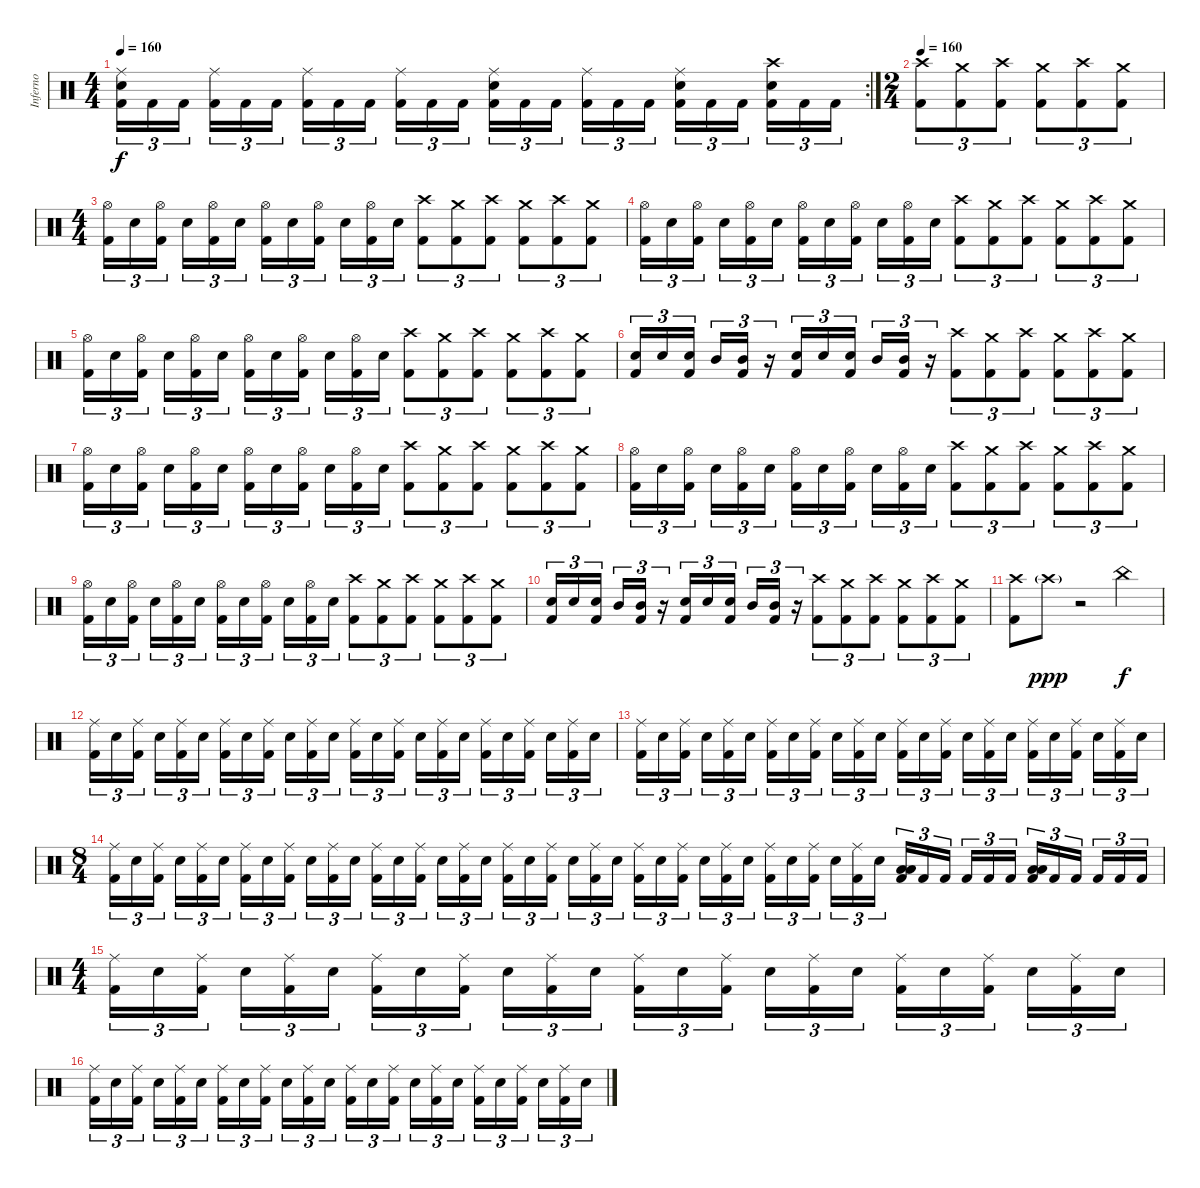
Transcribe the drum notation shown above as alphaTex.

\track ("Inferno" "Inferno") {instrument percussion}
\staff {score}
\articulation defaults
\rc 2
\ts (4 4)
\tempo 160
\clef neutral
\ks c
("Ride (middle)" "Electric Snare (hit)" "Kick (hit) 2").16{tu (3 2) dy f} "Kick (hit) 2".16{tu (3 2)} "Kick (hit) 2".16{tu (3 2)} ("Ride (middle)" "Kick (hit) 2").16{tu (3 2)} "Kick (hit) 2".16{tu (3 2)} "Kick (hit) 2".16{tu (3 2)} ("Ride (middle)" "Kick (hit) 2").16{tu (3 2)} "Kick (hit) 2".16{tu (3 2)} "Kick (hit) 2".16{tu (3 2)} ("Ride (middle)" "Kick (hit) 2").16{tu (3 2)} "Kick (hit) 2".16{tu (3 2)} "Kick (hit) 2".16{tu (3 2)} ("Ride (middle)" "Electric Snare (hit)" "Kick (hit) 2").16{tu (3 2)} "Kick (hit) 2".16{tu (3 2)} "Kick (hit) 2".16{tu (3 2)} ("Ride (middle)" "Kick (hit) 2").16{tu (3 2)} "Kick (hit) 2".16{tu (3 2)} "Kick (hit) 2".16{tu (3 2)} ("Ride (middle)" "Electric Snare (hit)" "Kick (hit) 2").16{tu (3 2)} "Kick (hit) 2".16{tu (3 2)} "Kick (hit) 2".16{tu (3 2)} ("Crash high (hit)" "Electric Snare (hit)" "Kick (hit) 2").16{tu (3 2)} "Kick (hit) 2".16{tu (3 2)} "Kick (hit) 2".16{tu (3 2)} |
\ts (2 4)
\tempo 160
("Crash high (hit)" "Kick (hit) 2").8{tu (3 2)} ("Crash medium (hit)" "Kick (hit) 2").8{tu (3 2)} ("Crash high (hit)" "Kick (hit) 2").8{tu (3 2)} ("Crash medium (hit)" "Kick (hit) 2").8{tu (3 2)} ("Crash high (hit)" "Kick (hit) 2").8{tu (3 2)} ("Crash medium (hit)" "Kick (hit) 2").8{tu (3 2)} |
\ts (4 4)
("Hi-Hat (open)" "Kick (hit) 2").16{tu (3 2)} "Electric Snare (hit)".16{tu (3 2)} ("Hi-Hat (open)" "Kick (hit) 2").16{tu (3 2)} "Electric Snare (hit)".16{tu (3 2)} ("Hi-Hat (open)" "Kick (hit) 2").16{tu (3 2)} "Electric Snare (hit)".16{tu (3 2)} ("Hi-Hat (open)" "Kick (hit) 2").16{tu (3 2)} "Electric Snare (hit)".16{tu (3 2)} ("Hi-Hat (open)" "Kick (hit) 2").16{tu (3 2)} "Electric Snare (hit)".16{tu (3 2)} ("Hi-Hat (open)" "Kick (hit) 2").16{tu (3 2)} "Electric Snare (hit)".16{tu (3 2)} ("Crash high (hit)" "Kick (hit) 2").8{tu (3 2)} ("Crash medium (hit)" "Kick (hit) 2").8{tu (3 2)} ("Crash high (hit)" "Kick (hit) 2").8{tu (3 2)} ("Crash medium (hit)" "Kick (hit) 2").8{tu (3 2)} ("Crash high (hit)" "Kick (hit) 2").8{tu (3 2)} ("Crash medium (hit)" "Kick (hit) 2").8{tu (3 2)} |
("Hi-Hat (open)" "Kick (hit) 2").16{tu (3 2)} "Electric Snare (hit)".16{tu (3 2)} ("Hi-Hat (open)" "Kick (hit) 2").16{tu (3 2)} "Electric Snare (hit)".16{tu (3 2)} ("Hi-Hat (open)" "Kick (hit) 2").16{tu (3 2)} "Electric Snare (hit)".16{tu (3 2)} ("Hi-Hat (open)" "Kick (hit) 2").16{tu (3 2)} "Electric Snare (hit)".16{tu (3 2)} ("Hi-Hat (open)" "Kick (hit) 2").16{tu (3 2)} "Electric Snare (hit)".16{tu (3 2)} ("Hi-Hat (open)" "Kick (hit) 2").16{tu (3 2)} "Electric Snare (hit)".16{tu (3 2)} ("Crash high (hit)" "Kick (hit) 2").8{tu (3 2)} ("Crash medium (hit)" "Kick (hit) 2").8{tu (3 2)} ("Crash high (hit)" "Kick (hit) 2").8{tu (3 2)} ("Crash medium (hit)" "Kick (hit) 2").8{tu (3 2)} ("Crash high (hit)" "Kick (hit) 2").8{tu (3 2)} ("Crash medium (hit)" "Kick (hit) 2").8{tu (3 2)} |
("Hi-Hat (open)" "Kick (hit) 2").16{tu (3 2)} "Electric Snare (hit)".16{tu (3 2)} ("Hi-Hat (open)" "Kick (hit) 2").16{tu (3 2)} "Electric Snare (hit)".16{tu (3 2)} ("Hi-Hat (open)" "Kick (hit) 2").16{tu (3 2)} "Electric Snare (hit)".16{tu (3 2)} ("Hi-Hat (open)" "Kick (hit) 2").16{tu (3 2)} "Electric Snare (hit)".16{tu (3 2)} ("Hi-Hat (open)" "Kick (hit) 2").16{tu (3 2)} "Electric Snare (hit)".16{tu (3 2)} ("Hi-Hat (open)" "Kick (hit) 2").16{tu (3 2)} "Electric Snare (hit)".16{tu (3 2)} ("Crash high (hit)" "Kick (hit) 2").8{tu (3 2)} ("Crash medium (hit)" "Kick (hit) 2").8{tu (3 2)} ("Crash high (hit)" "Kick (hit) 2").8{tu (3 2)} ("Crash medium (hit)" "Kick (hit) 2").8{tu (3 2)} ("Crash high (hit)" "Kick (hit) 2").8{tu (3 2)} ("Crash medium (hit)" "Kick (hit) 2").8{tu (3 2)} |
("Electric Snare (hit)" "Kick (hit) 2").16{tu (3 2)} "Electric Snare (hit)".16{tu (3 2)} ("Electric Snare (hit)" "Kick (hit) 2").16{tu (3 2)} "Mid Tom (hit)".16{tu (3 2)} ("Mid Tom (hit)" "Kick (hit) 2").16{tu (3 2)} r.16{tu (3 2)} ("Electric Snare (hit)" "Kick (hit) 2").16{tu (3 2)} "Electric Snare (hit)".16{tu (3 2)} ("Electric Snare (hit)" "Kick (hit) 2").16{tu (3 2)} "Mid Tom (hit)".16{tu (3 2)} ("Mid Tom (hit)" "Kick (hit) 2").16{tu (3 2)} r.16{tu (3 2)} ("Crash high (hit)" "Kick (hit) 2").8{tu (3 2)} ("Crash medium (hit)" "Kick (hit) 2").8{tu (3 2)} ("Crash high (hit)" "Kick (hit) 2").8{tu (3 2)} ("Crash medium (hit)" "Kick (hit) 2").8{tu (3 2)} ("Crash high (hit)" "Kick (hit) 2").8{tu (3 2)} ("Crash medium (hit)" "Kick (hit) 2").8{tu (3 2)} |
("Hi-Hat (open)" "Kick (hit) 2").16{tu (3 2)} "Electric Snare (hit)".16{tu (3 2)} ("Hi-Hat (open)" "Kick (hit) 2").16{tu (3 2)} "Electric Snare (hit)".16{tu (3 2)} ("Hi-Hat (open)" "Kick (hit) 2").16{tu (3 2)} "Electric Snare (hit)".16{tu (3 2)} ("Hi-Hat (open)" "Kick (hit) 2").16{tu (3 2)} "Electric Snare (hit)".16{tu (3 2)} ("Hi-Hat (open)" "Kick (hit) 2").16{tu (3 2)} "Electric Snare (hit)".16{tu (3 2)} ("Hi-Hat (open)" "Kick (hit) 2").16{tu (3 2)} "Electric Snare (hit)".16{tu (3 2)} ("Crash high (hit)" "Kick (hit) 2").8{tu (3 2)} ("Crash medium (hit)" "Kick (hit) 2").8{tu (3 2)} ("Crash high (hit)" "Kick (hit) 2").8{tu (3 2)} ("Crash medium (hit)" "Kick (hit) 2").8{tu (3 2)} ("Crash high (hit)" "Kick (hit) 2").8{tu (3 2)} ("Crash medium (hit)" "Kick (hit) 2").8{tu (3 2)} |
("Hi-Hat (open)" "Kick (hit) 2").16{tu (3 2)} "Electric Snare (hit)".16{tu (3 2)} ("Hi-Hat (open)" "Kick (hit) 2").16{tu (3 2)} "Electric Snare (hit)".16{tu (3 2)} ("Hi-Hat (open)" "Kick (hit) 2").16{tu (3 2)} "Electric Snare (hit)".16{tu (3 2)} ("Hi-Hat (open)" "Kick (hit) 2").16{tu (3 2)} "Electric Snare (hit)".16{tu (3 2)} ("Hi-Hat (open)" "Kick (hit) 2").16{tu (3 2)} "Electric Snare (hit)".16{tu (3 2)} ("Hi-Hat (open)" "Kick (hit) 2").16{tu (3 2)} "Electric Snare (hit)".16{tu (3 2)} ("Crash high (hit)" "Kick (hit) 2").8{tu (3 2)} ("Crash medium (hit)" "Kick (hit) 2").8{tu (3 2)} ("Crash high (hit)" "Kick (hit) 2").8{tu (3 2)} ("Crash medium (hit)" "Kick (hit) 2").8{tu (3 2)} ("Crash high (hit)" "Kick (hit) 2").8{tu (3 2)} ("Crash medium (hit)" "Kick (hit) 2").8{tu (3 2)} |
("Hi-Hat (open)" "Kick (hit) 2").16{tu (3 2)} "Electric Snare (hit)".16{tu (3 2)} ("Hi-Hat (open)" "Kick (hit) 2").16{tu (3 2)} "Electric Snare (hit)".16{tu (3 2)} ("Hi-Hat (open)" "Kick (hit) 2").16{tu (3 2)} "Electric Snare (hit)".16{tu (3 2)} ("Hi-Hat (open)" "Kick (hit) 2").16{tu (3 2)} "Electric Snare (hit)".16{tu (3 2)} ("Hi-Hat (open)" "Kick (hit) 2").16{tu (3 2)} "Electric Snare (hit)".16{tu (3 2)} ("Hi-Hat (open)" "Kick (hit) 2").16{tu (3 2)} "Electric Snare (hit)".16{tu (3 2)} ("Crash high (hit)" "Kick (hit) 2").8{tu (3 2)} ("Crash medium (hit)" "Kick (hit) 2").8{tu (3 2)} ("Crash high (hit)" "Kick (hit) 2").8{tu (3 2)} ("Crash medium (hit)" "Kick (hit) 2").8{tu (3 2)} ("Crash high (hit)" "Kick (hit) 2").8{tu (3 2)} ("Crash medium (hit)" "Kick (hit) 2").8{tu (3 2)} |
("Electric Snare (hit)" "Kick (hit) 2").16{tu (3 2)} "Electric Snare (hit)".16{tu (3 2)} ("Electric Snare (hit)" "Kick (hit) 2").16{tu (3 2)} "Mid Tom (hit)".16{tu (3 2)} ("Mid Tom (hit)" "Kick (hit) 2").16{tu (3 2)} r.16{tu (3 2)} ("Electric Snare (hit)" "Kick (hit) 2").16{tu (3 2)} "Electric Snare (hit)".16{tu (3 2)} ("Electric Snare (hit)" "Kick (hit) 2").16{tu (3 2)} "Mid Tom (hit)".16{tu (3 2)} ("Mid Tom (hit)" "Kick (hit) 2").16{tu (3 2)} r.16{tu (3 2)} ("Crash high (hit)" "Kick (hit) 2").8{tu (3 2)} ("Crash medium (hit)" "Kick (hit) 2").8{tu (3 2)} ("Crash high (hit)" "Kick (hit) 2").8{tu (3 2)} ("Crash medium (hit)" "Kick (hit) 2").8{tu (3 2)} ("Crash high (hit)" "Kick (hit) 2").8{tu (3 2)} ("Crash medium (hit)" "Kick (hit) 2").8{tu (3 2)} |
("Crash high (hit)" "Kick (hit) 2").8 "Crash high (hit)"{g}.8{dy ppp} r.2 "China (hit)".4{dy f} |
("Ride (middle)" "Kick (hit) 2").16{tu (3 2)} "Electric Snare (hit)".16{tu (3 2)} ("Ride (middle)" "Kick (hit) 2").16{tu (3 2)} "Electric Snare (hit)".16{tu (3 2)} ("Ride (middle)" "Kick (hit) 2").16{tu (3 2)} "Electric Snare (hit)".16{tu (3 2)} ("Ride (middle)" "Kick (hit) 2").16{tu (3 2)} "Electric Snare (hit)".16{tu (3 2)} ("Ride (middle)" "Kick (hit) 2").16{tu (3 2)} "Electric Snare (hit)".16{tu (3 2)} ("Ride (middle)" "Kick (hit) 2").16{tu (3 2)} "Electric Snare (hit)".16{tu (3 2)} ("Ride (middle)" "Kick (hit) 2").16{tu (3 2)} "Electric Snare (hit)".16{tu (3 2)} ("Ride (middle)" "Kick (hit) 2").16{tu (3 2)} "Electric Snare (hit)".16{tu (3 2)} ("Ride (middle)" "Kick (hit) 2").16{tu (3 2)} "Electric Snare (hit)".16{tu (3 2)} ("Ride (middle)" "Kick (hit) 2").16{tu (3 2)} "Electric Snare (hit)".16{tu (3 2)} ("Ride (middle)" "Kick (hit) 2").16{tu (3 2)} "Electric Snare (hit)".16{tu (3 2)} ("Ride (middle)" "Kick (hit) 2").16{tu (3 2)} "Electric Snare (hit)".16{tu (3 2)} |
("Ride (middle)" "Kick (hit) 2").16{tu (3 2)} "Electric Snare (hit)".16{tu (3 2)} ("Ride (middle)" "Kick (hit) 2").16{tu (3 2)} "Electric Snare (hit)".16{tu (3 2)} ("Ride (middle)" "Kick (hit) 2").16{tu (3 2)} "Electric Snare (hit)".16{tu (3 2)} ("Ride (middle)" "Kick (hit) 2").16{tu (3 2)} "Electric Snare (hit)".16{tu (3 2)} ("Ride (middle)" "Kick (hit) 2").16{tu (3 2)} "Electric Snare (hit)".16{tu (3 2)} ("Ride (middle)" "Kick (hit) 2").16{tu (3 2)} "Electric Snare (hit)".16{tu (3 2)} ("Ride (middle)" "Kick (hit) 2").16{tu (3 2)} "Electric Snare (hit)".16{tu (3 2)} ("Ride (middle)" "Kick (hit) 2").16{tu (3 2)} "Electric Snare (hit)".16{tu (3 2)} ("Ride (middle)" "Kick (hit) 2").16{tu (3 2)} "Electric Snare (hit)".16{tu (3 2)} ("Ride (middle)" "Kick (hit) 2").16{tu (3 2)} "Electric Snare (hit)".16{tu (3 2)} ("Ride (middle)" "Kick (hit) 2").16{tu (3 2)} "Electric Snare (hit)".16{tu (3 2)} ("Ride (middle)" "Kick (hit) 2").16{tu (3 2)} "Electric Snare (hit)".16{tu (3 2)} |
\ts (8 4)
("Ride (middle)" "Kick (hit) 2").16{tu (3 2)} "Electric Snare (hit)".16{tu (3 2)} ("Ride (middle)" "Kick (hit) 2").16{tu (3 2)} "Electric Snare (hit)".16{tu (3 2)} ("Ride (middle)" "Kick (hit) 2").16{tu (3 2)} "Electric Snare (hit)".16{tu (3 2)} ("Ride (middle)" "Kick (hit) 2").16{tu (3 2)} "Electric Snare (hit)".16{tu (3 2)} ("Ride (middle)" "Kick (hit) 2").16{tu (3 2)} "Electric Snare (hit)".16{tu (3 2)} ("Ride (middle)" "Kick (hit) 2").16{tu (3 2)} "Electric Snare (hit)".16{tu (3 2)} ("Ride (middle)" "Kick (hit) 2").16{tu (3 2)} "Electric Snare (hit)".16{tu (3 2)} ("Ride (middle)" "Kick (hit) 2").16{tu (3 2)} "Electric Snare (hit)".16{tu (3 2)} ("Ride (middle)" "Kick (hit) 2").16{tu (3 2)} "Electric Snare (hit)".16{tu (3 2)} ("Ride (middle)" "Kick (hit) 2").16{tu (3 2)} "Electric Snare (hit)".16{tu (3 2)} ("Ride (middle)" "Kick (hit) 2").16{tu (3 2)} "Electric Snare (hit)".16{tu (3 2)} ("Ride (middle)" "Kick (hit) 2").16{tu (3 2)} "Electric Snare (hit)".16{tu (3 2)} ("Ride (middle)" "Kick (hit) 2").16{tu (3 2)} "Electric Snare (hit)".16{tu (3 2)} ("Ride (middle)" "Kick (hit) 2").16{tu (3 2)} "Electric Snare (hit)".16{tu (3 2)} ("Ride (middle)" "Kick (hit) 2").16{tu (3 2)} "Electric Snare (hit)".16{tu (3 2)} ("Ride (middle)" "Kick (hit) 2").16{tu (3 2)} "Electric Snare (hit)".16{tu (3 2)} ("Ride (middle)" "Kick (hit) 2").16{tu (3 2)} "Electric Snare (hit)".16{tu (3 2)} ("Ride (middle)" "Kick (hit) 2").16{tu (3 2)} "Electric Snare (hit)".16{tu (3 2)} ("Low Tom (hit)" "Low Tom (hit)" "Kick (hit) 2").16{tu (3 2)} "Kick (hit) 2".16{tu (3 2)} "Kick (hit) 2".16{tu (3 2)} "Kick (hit) 2".16{tu (3 2)} "Kick (hit) 2".16{tu (3 2)} "Kick (hit) 2".16{tu (3 2)} ("Low Tom (hit)" "Low Tom (hit)" "Kick (hit) 2").16{tu (3 2)} "Kick (hit) 2".16{tu (3 2)} "Kick (hit) 2".16{tu (3 2)} "Kick (hit) 2".16{tu (3 2)} "Kick (hit) 2".16{tu (3 2)} "Kick (hit) 2".16{tu (3 2)} |
\ts (4 4)
("Ride (middle)" "Kick (hit) 2").16{tu (3 2)} "Electric Snare (hit)".16{tu (3 2)} ("Ride (middle)" "Kick (hit) 2").16{tu (3 2)} "Electric Snare (hit)".16{tu (3 2)} ("Ride (middle)" "Kick (hit) 2").16{tu (3 2)} "Electric Snare (hit)".16{tu (3 2)} ("Ride (middle)" "Kick (hit) 2").16{tu (3 2)} "Electric Snare (hit)".16{tu (3 2)} ("Ride (middle)" "Kick (hit) 2").16{tu (3 2)} "Electric Snare (hit)".16{tu (3 2)} ("Ride (middle)" "Kick (hit) 2").16{tu (3 2)} "Electric Snare (hit)".16{tu (3 2)} ("Ride (middle)" "Kick (hit) 2").16{tu (3 2)} "Electric Snare (hit)".16{tu (3 2)} ("Ride (middle)" "Kick (hit) 2").16{tu (3 2)} "Electric Snare (hit)".16{tu (3 2)} ("Ride (middle)" "Kick (hit) 2").16{tu (3 2)} "Electric Snare (hit)".16{tu (3 2)} ("Ride (middle)" "Kick (hit) 2").16{tu (3 2)} "Electric Snare (hit)".16{tu (3 2)} ("Ride (middle)" "Kick (hit) 2").16{tu (3 2)} "Electric Snare (hit)".16{tu (3 2)} ("Ride (middle)" "Kick (hit) 2").16{tu (3 2)} "Electric Snare (hit)".16{tu (3 2)} |
("Ride (middle)" "Kick (hit) 2").16{tu (3 2)} "Electric Snare (hit)".16{tu (3 2)} ("Ride (middle)" "Kick (hit) 2").16{tu (3 2)} "Electric Snare (hit)".16{tu (3 2)} ("Ride (middle)" "Kick (hit) 2").16{tu (3 2)} "Electric Snare (hit)".16{tu (3 2)} ("Ride (middle)" "Kick (hit) 2").16{tu (3 2)} "Electric Snare (hit)".16{tu (3 2)} ("Ride (middle)" "Kick (hit) 2").16{tu (3 2)} "Electric Snare (hit)".16{tu (3 2)} ("Ride (middle)" "Kick (hit) 2").16{tu (3 2)} "Electric Snare (hit)".16{tu (3 2)} ("Ride (middle)" "Kick (hit) 2").16{tu (3 2)} "Electric Snare (hit)".16{tu (3 2)} ("Ride (middle)" "Kick (hit) 2").16{tu (3 2)} "Electric Snare (hit)".16{tu (3 2)} ("Ride (middle)" "Kick (hit) 2").16{tu (3 2)} "Electric Snare (hit)".16{tu (3 2)} ("Ride (middle)" "Kick (hit) 2").16{tu (3 2)} "Electric Snare (hit)".16{tu (3 2)} ("Ride (middle)" "Kick (hit) 2").16{tu (3 2)} "Electric Snare (hit)".16{tu (3 2)} ("Ride (middle)" "Kick (hit) 2").16{tu (3 2)} "Electric Snare (hit)".16{tu (3 2)}
